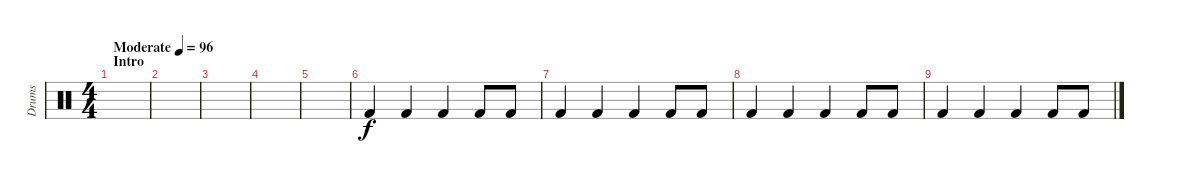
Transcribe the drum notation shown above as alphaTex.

\track ("Drums" "Drums") {instrument percussion}
\staff {score}
\articulation defaults
\ts (4 4)
\section ("" "Intro")
\tempo (96 "Moderate")
\clef neutral
\ks c
|
|
|
|
|
"Kick (hit) 2".4 "Kick (hit) 2".4 "Kick (hit) 2".4 "Kick (hit) 2".8 "Kick (hit) 2".8 |
"Kick (hit) 2".4 "Kick (hit) 2".4 "Kick (hit) 2".4 "Kick (hit) 2".8 "Kick (hit) 2".8 |
"Kick (hit) 2".4 "Kick (hit) 2".4 "Kick (hit) 2".4 "Kick (hit) 2".8 "Kick (hit) 2".8 |
"Kick (hit) 2".4 "Kick (hit) 2".4 "Kick (hit) 2".4 "Kick (hit) 2".8 "Kick (hit) 2".8
